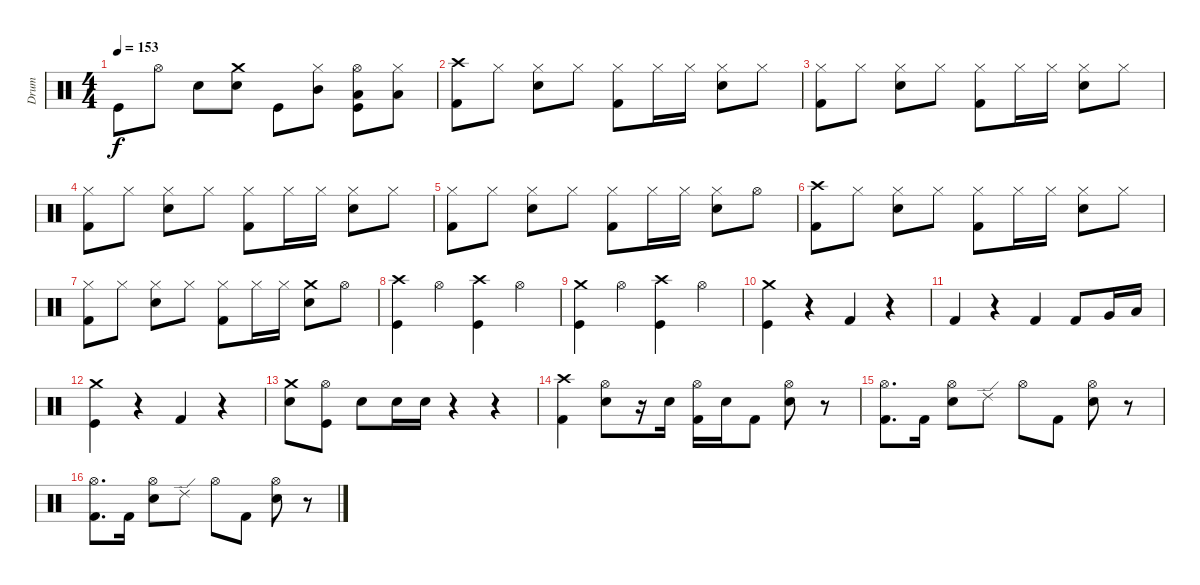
\track ("Drum" "Drum") {instrument percussion}
\staff {score}
\articulation defaults
\ts (4 4)
\tempo 153
\clef neutral
\ks c "Kick (hit)".8{dy f} "Hi-Hat (open)".8 "Electric Snare (hit)".8
("Electric Snare (hit)" "Crash medium (hit)").8 "Kick (hit)".8 ("Hi-Hat (closed)" "Mid Tom (hit)").8 ("Kick (hit)" "Hi-Hat (open)" "Low Tom (hit)").8 ("Hi-Hat (closed)" "Low Floor Tom (hit)").8 |
("Kick (hit) 2" "Crash high (hit)").8 "Hi-Hat (closed)".8 ("Hi-Hat (closed)" "Snare (hit) 2").8 "Hi-Hat (closed)".8 ("Hi-Hat (closed)" "Kick (hit) 2").8 "Hi-Hat (closed)".16 "Hi-Hat (closed)".16 ("Hi-Hat (closed)" "Snare (hit) 2").8 "Hi-Hat (closed)".8 |
("Hi-Hat (closed)" "Kick (hit) 2").8 "Hi-Hat (closed)".8 ("Hi-Hat (closed)" "Snare (hit) 2").8 "Hi-Hat (closed)".8 ("Hi-Hat (closed)" "Kick (hit) 2").8 "Hi-Hat (closed)".16 "Hi-Hat (closed)".16 ("Hi-Hat (closed)" "Snare (hit) 2").8 "Hi-Hat (closed)".8 |
("Hi-Hat (closed)" "Kick (hit) 2").8 "Hi-Hat (closed)".8 ("Hi-Hat (closed)" "Snare (hit) 2").8 "Hi-Hat (closed)".8 ("Hi-Hat (closed)" "Kick (hit) 2").8 "Hi-Hat (closed)".16 "Hi-Hat (closed)".16 ("Hi-Hat (closed)" "Snare (hit) 2").8 "Hi-Hat (closed)".8 |
("Hi-Hat (closed)" "Kick (hit) 2").8 "Hi-Hat (closed)".8 ("Hi-Hat (closed)" "Snare (hit) 2").8 "Hi-Hat (closed)".8 ("Hi-Hat (closed)" "Kick (hit) 2").8 "Hi-Hat (closed)".16 "Hi-Hat (closed)".16 ("Hi-Hat (closed)" "Snare (hit) 2").8 "Hi-Hat (open)".8 |
("Kick (hit) 2" "Crash high (hit)").8 "Hi-Hat (closed)".8 ("Hi-Hat (closed)" "Snare (hit) 2").8 "Hi-Hat (closed)".8 ("Hi-Hat (closed)" "Kick (hit) 2").8 "Hi-Hat (closed)".16 "Hi-Hat (closed)".16 ("Hi-Hat (closed)" "Snare (hit) 2").8 "Hi-Hat (closed)".8 |
("Hi-Hat (closed)" "Kick (hit) 2").8 "Hi-Hat (closed)".8 ("Hi-Hat (closed)" "Snare (hit) 2").8 "Hi-Hat (closed)".8 ("Hi-Hat (closed)" "Kick (hit) 2").8 "Hi-Hat (closed)".16 "Hi-Hat (closed)".16 ("Snare (hit) 2" "Crash medium (hit)").8 "Hi-Hat (open)".8 |
("Kick (hit)" "Crash high (hit)").4 "Hi-Hat (open)".4 ("Kick (hit)" "Crash high (hit)").4 "Hi-Hat (open)".4 |
("Kick (hit)" "Crash medium (hit)").4 "Hi-Hat (open)".4 ("Kick (hit)" "Crash high (hit)").4 "Hi-Hat (open)".4 |
("Kick (hit)" "Crash medium (hit)").4 r.4 "Kick (hit) 2".4 r.4 |
"Kick (hit) 2".4 r.4 "Kick (hit) 2".4 "Kick (hit) 2".8 "Very Low Tom (hit)".16 "Low Floor Tom (hit)".16 |
("Kick (hit)" "Crash medium (hit)").4 r.4 "Kick (hit) 2".4 r.4 |
("Snare (hit) 2" "Crash medium (hit)").8 ("Kick (hit)" "Hi-Hat (open)").8 "Snare (hit) 2".8 "Snare (hit) 2".16 "Snare (hit) 2".16 r.4 r.4 |
("Crash high (hit)" "Kick (hit) 2").4 ("Hi-Hat (open)" "Snare (hit) 2").8 r.16 "Snare (hit) 2".16 ("Hi-Hat (open)" "Kick (hit) 2").16 "Snare (hit) 2".16 "Kick (hit) 2".8 ("Hi-Hat (open)" "Snare (hit) 2").8 r.8 |
("Hi-Hat (open)" "Kick (hit) 2").8{d} "Kick (hit) 2".16 ("Hi-Hat (open)" "Snare (hit) 2").8 "Ride (edge) 2".8 "Hi-Hat (open)".8 "Kick (hit) 2".8 ("Hi-Hat (open)" "Snare (hit) 2").8 r.8 |
("Hi-Hat (open)" "Kick (hit) 2").8{d} "Kick (hit) 2".16 ("Hi-Hat (open)" "Snare (hit) 2").8 "Ride (edge) 2".8 "Hi-Hat (open)".8 "Kick (hit) 2".8 ("Hi-Hat (open)" "Snare (hit) 2").8 r.8
